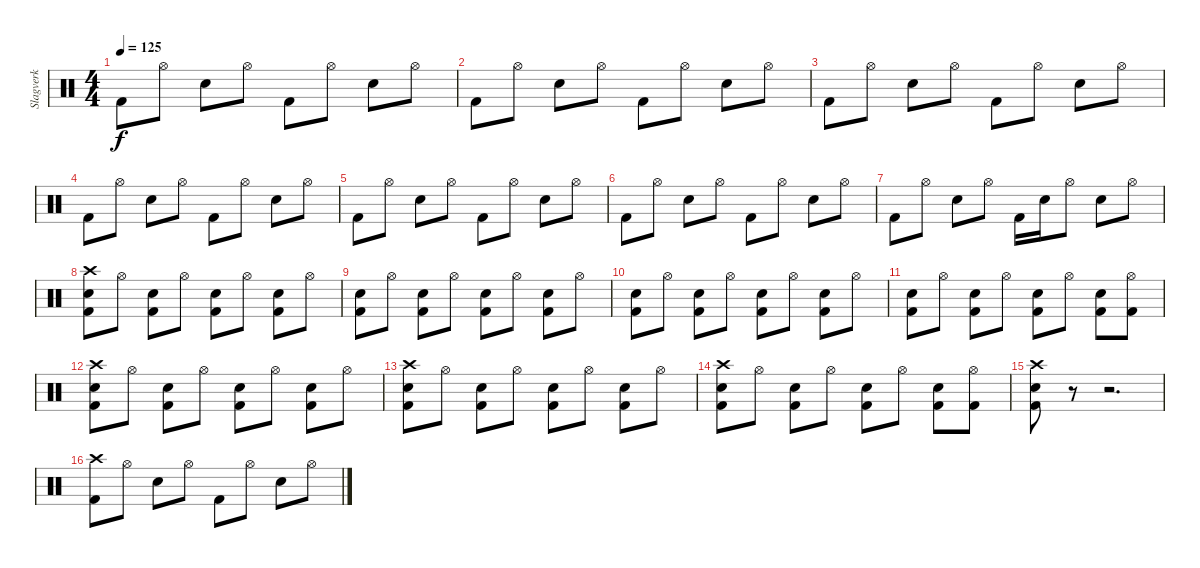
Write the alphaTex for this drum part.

\track ("Slagverk" "Slagverk") {instrument percussion}
\staff {score}
\articulation defaults
\ts (4 4)
\tempo 125
\clef neutral
\ks c "Kick (hit) 2".8{dy f} "Hi-Hat (open)".8 "Electric Snare (hit)".8 "Hi-Hat (open)".8 "Kick (hit) 2".8 "Hi-Hat (open)".8 "Electric Snare (hit)".8 "Hi-Hat (open)".8
|
"Kick (hit) 2".8 "Hi-Hat (open)".8 "Electric Snare (hit)".8 "Hi-Hat (open)".8 "Kick (hit) 2".8 "Hi-Hat (open)".8 "Electric Snare (hit)".8 "Hi-Hat (open)".8 |
"Kick (hit) 2".8 "Hi-Hat (open)".8 "Electric Snare (hit)".8 "Hi-Hat (open)".8 "Kick (hit) 2".8 "Hi-Hat (open)".8 "Electric Snare (hit)".8 "Hi-Hat (open)".8 |
"Kick (hit) 2".8 "Hi-Hat (open)".8 "Electric Snare (hit)".8 "Hi-Hat (open)".8 "Kick (hit) 2".8 "Hi-Hat (open)".8 "Electric Snare (hit)".8 "Hi-Hat (open)".8 |
"Kick (hit) 2".8 "Hi-Hat (open)".8 "Electric Snare (hit)".8 "Hi-Hat (open)".8 "Kick (hit) 2".8 "Hi-Hat (open)".8 "Electric Snare (hit)".8 "Hi-Hat (open)".8 |
"Kick (hit) 2".8 "Hi-Hat (open)".8 "Electric Snare (hit)".8 "Hi-Hat (open)".8 "Kick (hit) 2".8 "Hi-Hat (open)".8 "Electric Snare (hit)".8 "Hi-Hat (open)".8 |
"Kick (hit) 2".8 "Hi-Hat (open)".8 "Electric Snare (hit)".8 "Hi-Hat (open)".8 "Kick (hit) 2".16 "Electric Snare (hit)".16 "Hi-Hat (open)".8 "Electric Snare (hit)".8 "Hi-Hat (open)".8 |
("Crash high (hit)" "Kick (hit) 2" "Electric Snare (hit)").8 "Hi-Hat (open)".8 ("Kick (hit) 2" "Electric Snare (hit)").8 "Hi-Hat (open)".8 ("Kick (hit) 2" "Electric Snare (hit)").8 "Hi-Hat (open)".8 ("Kick (hit) 2" "Electric Snare (hit)").8 "Hi-Hat (open)".8 |
("Kick (hit) 2" "Electric Snare (hit)").8 "Hi-Hat (open)".8 ("Kick (hit) 2" "Electric Snare (hit)").8 "Hi-Hat (open)".8 ("Kick (hit) 2" "Electric Snare (hit)").8 "Hi-Hat (open)".8 ("Kick (hit) 2" "Electric Snare (hit)").8 "Hi-Hat (open)".8 |
("Kick (hit) 2" "Electric Snare (hit)").8 "Hi-Hat (open)".8 ("Kick (hit) 2" "Electric Snare (hit)").8 "Hi-Hat (open)".8 ("Kick (hit) 2" "Electric Snare (hit)").8 "Hi-Hat (open)".8 ("Kick (hit) 2" "Electric Snare (hit)").8 "Hi-Hat (open)".8 |
("Kick (hit) 2" "Electric Snare (hit)").8 "Hi-Hat (open)".8 ("Kick (hit) 2" "Electric Snare (hit)").8 "Hi-Hat (open)".8 ("Kick (hit) 2" "Electric Snare (hit)").8 "Hi-Hat (open)".8 ("Kick (hit) 2" "Electric Snare (hit)").8 ("Kick (hit) 2" "Hi-Hat (open)").8 |
("Crash high (hit)" "Kick (hit) 2" "Electric Snare (hit)").8 "Hi-Hat (open)".8 ("Kick (hit) 2" "Electric Snare (hit)").8 "Hi-Hat (open)".8 ("Kick (hit) 2" "Electric Snare (hit)").8 "Hi-Hat (open)".8 ("Kick (hit) 2" "Electric Snare (hit)").8 "Hi-Hat (open)".8 |
("Crash high (hit)" "Kick (hit) 2" "Electric Snare (hit)").8 "Hi-Hat (open)".8 ("Kick (hit) 2" "Electric Snare (hit)").8 "Hi-Hat (open)".8 ("Kick (hit) 2" "Electric Snare (hit)").8 "Hi-Hat (open)".8 ("Kick (hit) 2" "Electric Snare (hit)").8 "Hi-Hat (open)".8 |
("Crash high (hit)" "Kick (hit) 2" "Electric Snare (hit)").8 "Hi-Hat (open)".8 ("Kick (hit) 2" "Electric Snare (hit)").8 "Hi-Hat (open)".8 ("Kick (hit) 2" "Electric Snare (hit)").8 "Hi-Hat (open)".8 ("Kick (hit) 2" "Electric Snare (hit)").8 ("Kick (hit) 2" "Hi-Hat (open)").8 |
("Crash high (hit)" "Electric Snare (hit)" "Kick (hit) 2").8 r.8{volume 4} r.2{d} |
("Crash high (hit)" "Kick (hit) 2").8{volume 15} "Hi-Hat (open)".8 "Electric Snare (hit)".8 "Hi-Hat (open)".8 "Kick (hit) 2".8 "Hi-Hat (open)".8 "Electric Snare (hit)".8 "Hi-Hat (open)".8
